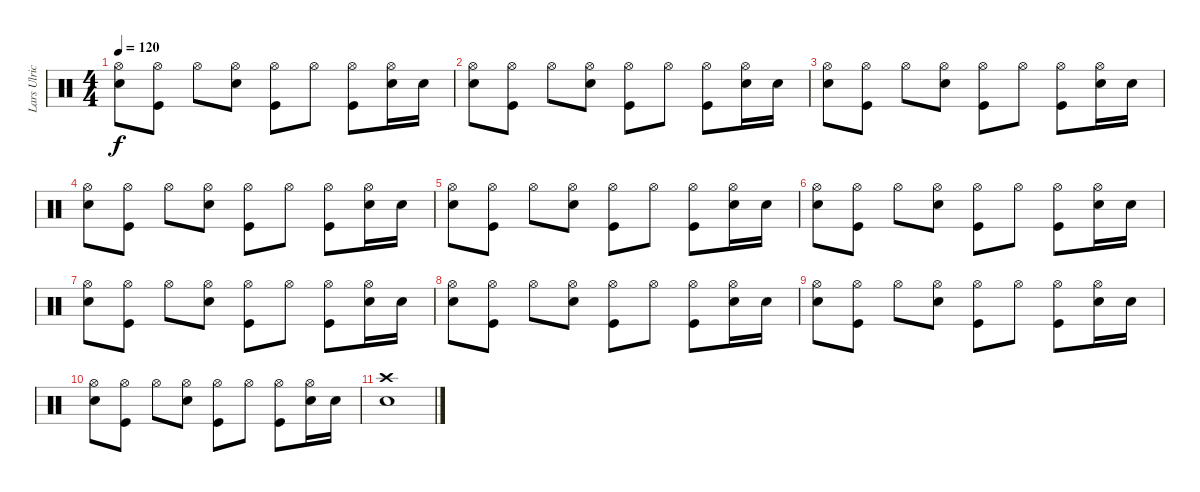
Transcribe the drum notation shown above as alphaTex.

\track ("Lars Ulrich Drums" "Lars Ulric") {instrument percussion}
\staff {score}
\articulation defaults
\ts (4 4)
\tempo 120
\clef neutral
\ks c
("Hi-Hat (open)" "Electric Snare (hit)").8{dy f} ("Hi-Hat (open)" "Kick (hit)").8 "Hi-Hat (open)".8 ("Hi-Hat (open)" "Electric Snare (hit)").8 ("Hi-Hat (open)" "Kick (hit)").8 "Hi-Hat (open)".8 ("Hi-Hat (open)" "Kick (hit)").8 ("Hi-Hat (open)" "Electric Snare (hit)").16 "Electric Snare (hit)".16 |
("Hi-Hat (open)" "Electric Snare (hit)").8 ("Hi-Hat (open)" "Kick (hit)").8 "Hi-Hat (open)".8 ("Hi-Hat (open)" "Electric Snare (hit)").8 ("Hi-Hat (open)" "Kick (hit)").8 "Hi-Hat (open)".8 ("Hi-Hat (open)" "Kick (hit)").8 ("Hi-Hat (open)" "Electric Snare (hit)").16 "Electric Snare (hit)".16 |
("Hi-Hat (open)" "Electric Snare (hit)").8 ("Hi-Hat (open)" "Kick (hit)").8 "Hi-Hat (open)".8 ("Hi-Hat (open)" "Electric Snare (hit)").8 ("Hi-Hat (open)" "Kick (hit)").8 "Hi-Hat (open)".8 ("Hi-Hat (open)" "Kick (hit)").8 ("Hi-Hat (open)" "Electric Snare (hit)").16 "Electric Snare (hit)".16 |
("Hi-Hat (open)" "Electric Snare (hit)").8 ("Hi-Hat (open)" "Kick (hit)").8 "Hi-Hat (open)".8 ("Hi-Hat (open)" "Electric Snare (hit)").8 ("Hi-Hat (open)" "Kick (hit)").8 "Hi-Hat (open)".8 ("Hi-Hat (open)" "Kick (hit)").8 ("Hi-Hat (open)" "Electric Snare (hit)").16 "Electric Snare (hit)".16 |
("Hi-Hat (open)" "Electric Snare (hit)").8 ("Hi-Hat (open)" "Kick (hit)").8 "Hi-Hat (open)".8 ("Hi-Hat (open)" "Electric Snare (hit)").8 ("Hi-Hat (open)" "Kick (hit)").8 "Hi-Hat (open)".8 ("Hi-Hat (open)" "Kick (hit)").8 ("Hi-Hat (open)" "Electric Snare (hit)").16 "Electric Snare (hit)".16 |
("Hi-Hat (open)" "Electric Snare (hit)").8 ("Hi-Hat (open)" "Kick (hit)").8 "Hi-Hat (open)".8 ("Hi-Hat (open)" "Electric Snare (hit)").8 ("Hi-Hat (open)" "Kick (hit)").8 "Hi-Hat (open)".8 ("Hi-Hat (open)" "Kick (hit)").8 ("Hi-Hat (open)" "Electric Snare (hit)").16 "Electric Snare (hit)".16 |
("Hi-Hat (open)" "Electric Snare (hit)").8 ("Hi-Hat (open)" "Kick (hit)").8 "Hi-Hat (open)".8 ("Hi-Hat (open)" "Electric Snare (hit)").8 ("Hi-Hat (open)" "Kick (hit)").8 "Hi-Hat (open)".8 ("Hi-Hat (open)" "Kick (hit)").8 ("Hi-Hat (open)" "Electric Snare (hit)").16 "Electric Snare (hit)".16 |
("Hi-Hat (open)" "Electric Snare (hit)").8 ("Hi-Hat (open)" "Kick (hit)").8 "Hi-Hat (open)".8 ("Hi-Hat (open)" "Electric Snare (hit)").8 ("Hi-Hat (open)" "Kick (hit)").8 "Hi-Hat (open)".8 ("Hi-Hat (open)" "Kick (hit)").8 ("Hi-Hat (open)" "Electric Snare (hit)").16 "Electric Snare (hit)".16 |
("Hi-Hat (open)" "Electric Snare (hit)").8 ("Hi-Hat (open)" "Kick (hit)").8 "Hi-Hat (open)".8 ("Hi-Hat (open)" "Electric Snare (hit)").8 ("Hi-Hat (open)" "Kick (hit)").8 "Hi-Hat (open)".8 ("Hi-Hat (open)" "Kick (hit)").8 ("Hi-Hat (open)" "Electric Snare (hit)").16 "Electric Snare (hit)".16 |
("Hi-Hat (open)" "Electric Snare (hit)").8 ("Hi-Hat (open)" "Kick (hit)").8 "Hi-Hat (open)".8 ("Hi-Hat (open)" "Electric Snare (hit)").8 ("Hi-Hat (open)" "Kick (hit)").8 "Hi-Hat (open)".8 ("Hi-Hat (open)" "Kick (hit)").8 ("Hi-Hat (open)" "Electric Snare (hit)").16 "Electric Snare (hit)".16 |
("Crash high (hit)" "Electric Snare (hit)").1
